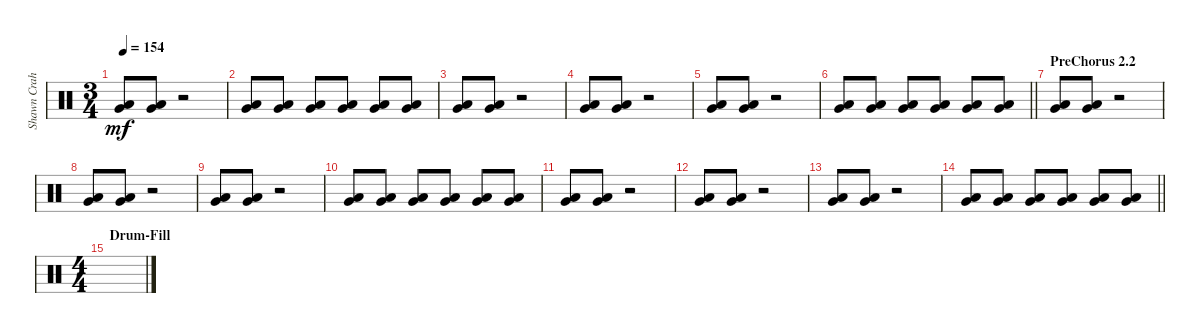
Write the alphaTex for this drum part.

\track ("Shawn Crahan" "Shawn Crah") {instrument percussion}
\staff {score}
\articulation defaults
\ts (3 4)
\tempo 154
\clef neutral
\ks c
("Very Low Tom (hit)" "Low Floor Tom (hit)").8{dy mf} ("Very Low Tom (hit)" "Low Floor Tom (hit)").8 r.2 |
("Very Low Tom (hit)" "Low Floor Tom (hit)").8 ("Very Low Tom (hit)" "Low Floor Tom (hit)").8 ("Very Low Tom (hit)" "Low Floor Tom (hit)").8 ("Very Low Tom (hit)" "Low Floor Tom (hit)").8 ("Very Low Tom (hit)" "Low Floor Tom (hit)").8 ("Very Low Tom (hit)" "Low Floor Tom (hit)").8 |
("Very Low Tom (hit)" "Low Floor Tom (hit)").8 ("Very Low Tom (hit)" "Low Floor Tom (hit)").8 r.2 |
("Very Low Tom (hit)" "Low Floor Tom (hit)").8 ("Very Low Tom (hit)" "Low Floor Tom (hit)").8 r.2 |
("Very Low Tom (hit)" "Low Floor Tom (hit)").8 ("Very Low Tom (hit)" "Low Floor Tom (hit)").8 r.2 |
\barLineRight lightlight
("Very Low Tom (hit)" "Low Floor Tom (hit)").8 ("Very Low Tom (hit)" "Low Floor Tom (hit)").8 ("Very Low Tom (hit)" "Low Floor Tom (hit)").8 ("Very Low Tom (hit)" "Low Floor Tom (hit)").8 ("Very Low Tom (hit)" "Low Floor Tom (hit)").8 ("Very Low Tom (hit)" "Low Floor Tom (hit)").8 |
\section ("" "PreChorus 2.2")
("Very Low Tom (hit)" "Low Floor Tom (hit)").8 ("Very Low Tom (hit)" "Low Floor Tom (hit)").8 r.2 |
("Very Low Tom (hit)" "Low Floor Tom (hit)").8 ("Very Low Tom (hit)" "Low Floor Tom (hit)").8 r.2 |
("Very Low Tom (hit)" "Low Floor Tom (hit)").8 ("Very Low Tom (hit)" "Low Floor Tom (hit)").8 r.2 |
("Very Low Tom (hit)" "Low Floor Tom (hit)").8 ("Very Low Tom (hit)" "Low Floor Tom (hit)").8 ("Very Low Tom (hit)" "Low Floor Tom (hit)").8 ("Very Low Tom (hit)" "Low Floor Tom (hit)").8 ("Very Low Tom (hit)" "Low Floor Tom (hit)").8 ("Very Low Tom (hit)" "Low Floor Tom (hit)").8 |
("Very Low Tom (hit)" "Low Floor Tom (hit)").8 ("Very Low Tom (hit)" "Low Floor Tom (hit)").8 r.2 |
("Very Low Tom (hit)" "Low Floor Tom (hit)").8 ("Very Low Tom (hit)" "Low Floor Tom (hit)").8 r.2 |
("Very Low Tom (hit)" "Low Floor Tom (hit)").8 ("Very Low Tom (hit)" "Low Floor Tom (hit)").8 r.2 |
\barLineRight lightlight
("Very Low Tom (hit)" "Low Floor Tom (hit)").8 ("Very Low Tom (hit)" "Low Floor Tom (hit)").8 ("Very Low Tom (hit)" "Low Floor Tom (hit)").8 ("Very Low Tom (hit)" "Low Floor Tom (hit)").8 ("Very Low Tom (hit)" "Low Floor Tom (hit)").8 ("Very Low Tom (hit)" "Low Floor Tom (hit)").8 |
\ts (4 4)
\section ("" "Drum-Fill")
